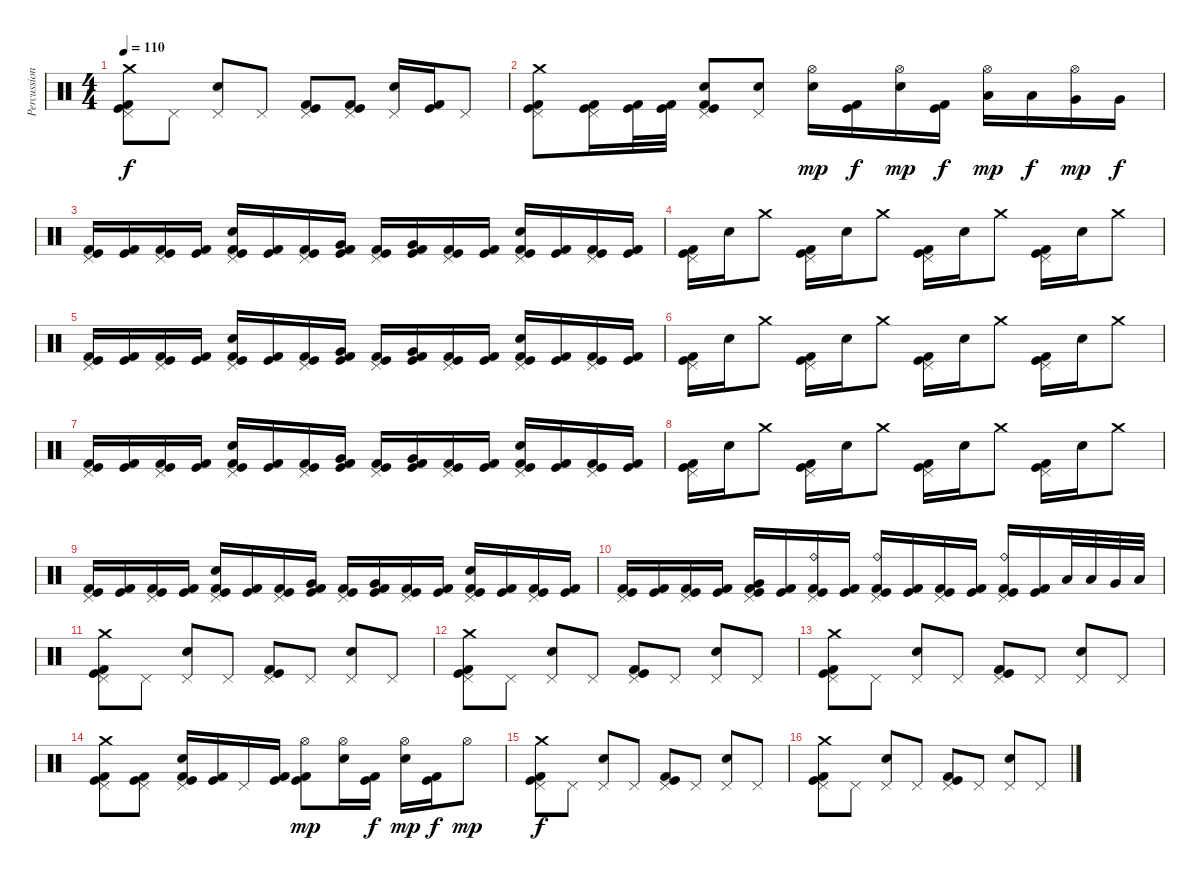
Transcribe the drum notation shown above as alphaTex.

\track ("Percussions" "Percussion") {instrument percussion}
\staff {score}
\articulation defaults
\ts (4 4)
\tempo 110
\clef neutral
\ks c
("Crash medium (hit)" "Pedal Hi-Hat (hit)" "Kick (hit)" "Kick (hit) 2").8{dy f} "Pedal Hi-Hat (hit)".8 ("Pedal Hi-Hat (hit)" "Electric Snare (hit)").8 "Pedal Hi-Hat (hit)".8 ("Pedal Hi-Hat (hit)" "Kick (hit)" "Kick (hit) 2").8 ("Pedal Hi-Hat (hit)" "Kick (hit)" "Kick (hit) 2").8 ("Pedal Hi-Hat (hit)" "Electric Snare (hit)").16 ("Kick (hit)" "Kick (hit) 2").16 "Pedal Hi-Hat (hit)".8 |
("Crash medium (hit)" "Pedal Hi-Hat (hit)" "Kick (hit)" "Kick (hit) 2").8 ("Pedal Hi-Hat (hit)" "Kick (hit)" "Kick (hit) 2").16 ("Kick (hit)" "Kick (hit) 2").32 ("Kick (hit)" "Kick (hit) 2").32 ("Pedal Hi-Hat (hit)" "Electric Snare (hit)" "Kick (hit)" "Kick (hit) 2").8 ("Pedal Hi-Hat (hit)" "Electric Snare (hit)").8 ("Hi-Hat (open)" "Electric Snare (hit)").16{dy mp} ("Kick (hit)" "Kick (hit) 2").16{dy f} ("Hi-Hat (open)" "Electric Snare (hit)").16{dy mp} ("Kick (hit)" "Kick (hit) 2").16{dy f} ("Hi-Hat (open)" "Low Tom (hit)").16{dy mp} "Low Tom (hit)".16{dy f} ("Hi-Hat (open)" "Very Low Tom (hit)").16{dy mp} "Very Low Tom (hit)".16{dy f} |
("Pedal Hi-Hat (hit)" "Kick (hit)" "Kick (hit) 2").16 ("Kick (hit)" "Kick (hit) 2").16 ("Pedal Hi-Hat (hit)" "Kick (hit)" "Kick (hit) 2").16 ("Kick (hit)" "Kick (hit) 2").16 ("Pedal Hi-Hat (hit)" "Electric Snare (hit)" "Kick (hit)" "Kick (hit) 2").16 ("Kick (hit)" "Kick (hit) 2").16 ("Pedal Hi-Hat (hit)" "Kick (hit)" "Kick (hit) 2").16 ("Very Low Tom (hit)" "Kick (hit)" "Kick (hit) 2").16 ("Pedal Hi-Hat (hit)" "Kick (hit)" "Kick (hit) 2").16 ("Very Low Tom (hit)" "Kick (hit)" "Kick (hit) 2").16 ("Pedal Hi-Hat (hit)" "Kick (hit)" "Kick (hit) 2").16 ("Kick (hit)" "Kick (hit) 2").16 ("Pedal Hi-Hat (hit)" "Electric Snare (hit)" "Kick (hit)" "Kick (hit) 2").16 ("Kick (hit)" "Kick (hit) 2").16 ("Pedal Hi-Hat (hit)" "Kick (hit)" "Kick (hit) 2").16 ("Kick (hit)" "Kick (hit) 2").16 |
("Pedal Hi-Hat (hit)" "Kick (hit)" "Kick (hit) 2").16 "Electric Snare (hit)".16 "Crash medium (hit)".8 ("Pedal Hi-Hat (hit)" "Kick (hit)" "Kick (hit) 2").16 "Electric Snare (hit)".16 "Crash medium (hit)".8 ("Pedal Hi-Hat (hit)" "Kick (hit)" "Kick (hit) 2").16 "Electric Snare (hit)".16 "Crash medium (hit)".8 ("Pedal Hi-Hat (hit)" "Kick (hit)" "Kick (hit) 2").16 "Electric Snare (hit)".16 "Crash medium (hit)".8 |
("Pedal Hi-Hat (hit)" "Kick (hit)" "Kick (hit) 2").16 ("Kick (hit)" "Kick (hit) 2").16 ("Pedal Hi-Hat (hit)" "Kick (hit)" "Kick (hit) 2").16 ("Kick (hit)" "Kick (hit) 2").16 ("Pedal Hi-Hat (hit)" "Electric Snare (hit)" "Kick (hit)" "Kick (hit) 2").16 ("Kick (hit)" "Kick (hit) 2").16 ("Pedal Hi-Hat (hit)" "Kick (hit)" "Kick (hit) 2").16 ("Very Low Tom (hit)" "Kick (hit)" "Kick (hit) 2").16 ("Pedal Hi-Hat (hit)" "Kick (hit)" "Kick (hit) 2").16 ("Very Low Tom (hit)" "Kick (hit)" "Kick (hit) 2").16 ("Pedal Hi-Hat (hit)" "Kick (hit)" "Kick (hit) 2").16 ("Kick (hit)" "Kick (hit) 2").16 ("Pedal Hi-Hat (hit)" "Electric Snare (hit)" "Kick (hit)" "Kick (hit) 2").16 ("Kick (hit)" "Kick (hit) 2").16 ("Pedal Hi-Hat (hit)" "Kick (hit)" "Kick (hit) 2").16 ("Kick (hit)" "Kick (hit) 2").16 |
("Pedal Hi-Hat (hit)" "Kick (hit)" "Kick (hit) 2").16 "Electric Snare (hit)".16 "Crash medium (hit)".8 ("Pedal Hi-Hat (hit)" "Kick (hit)" "Kick (hit) 2").16 "Electric Snare (hit)".16 "Crash medium (hit)".8 ("Pedal Hi-Hat (hit)" "Kick (hit)" "Kick (hit) 2").16 "Electric Snare (hit)".16 "Crash medium (hit)".8 ("Pedal Hi-Hat (hit)" "Kick (hit)" "Kick (hit) 2").16 "Electric Snare (hit)".16 "Crash medium (hit)".8 |
("Pedal Hi-Hat (hit)" "Kick (hit)" "Kick (hit) 2").16 ("Kick (hit)" "Kick (hit) 2").16 ("Pedal Hi-Hat (hit)" "Kick (hit)" "Kick (hit) 2").16 ("Kick (hit)" "Kick (hit) 2").16 ("Pedal Hi-Hat (hit)" "Electric Snare (hit)" "Kick (hit)" "Kick (hit) 2").16 ("Kick (hit)" "Kick (hit) 2").16 ("Pedal Hi-Hat (hit)" "Kick (hit)" "Kick (hit) 2").16 ("Very Low Tom (hit)" "Kick (hit)" "Kick (hit) 2").16 ("Pedal Hi-Hat (hit)" "Kick (hit)" "Kick (hit) 2").16 ("Very Low Tom (hit)" "Kick (hit)" "Kick (hit) 2").16 ("Pedal Hi-Hat (hit)" "Kick (hit)" "Kick (hit) 2").16 ("Kick (hit)" "Kick (hit) 2").16 ("Pedal Hi-Hat (hit)" "Electric Snare (hit)" "Kick (hit)" "Kick (hit) 2").16 ("Kick (hit)" "Kick (hit) 2").16 ("Pedal Hi-Hat (hit)" "Kick (hit)" "Kick (hit) 2").16 ("Kick (hit)" "Kick (hit) 2").16 |
("Pedal Hi-Hat (hit)" "Kick (hit)" "Kick (hit) 2").16 "Electric Snare (hit)".16 "Crash medium (hit)".8 ("Pedal Hi-Hat (hit)" "Kick (hit)" "Kick (hit) 2").16 "Electric Snare (hit)".16 "Crash medium (hit)".8 ("Pedal Hi-Hat (hit)" "Kick (hit)" "Kick (hit) 2").16 "Electric Snare (hit)".16 "Crash medium (hit)".8 ("Pedal Hi-Hat (hit)" "Kick (hit)" "Kick (hit) 2").16 "Electric Snare (hit)".16 "Crash medium (hit)".8 |
("Pedal Hi-Hat (hit)" "Kick (hit)" "Kick (hit) 2").16 ("Kick (hit)" "Kick (hit) 2").16 ("Pedal Hi-Hat (hit)" "Kick (hit)" "Kick (hit) 2").16 ("Kick (hit)" "Kick (hit) 2").16 ("Pedal Hi-Hat (hit)" "Electric Snare (hit)" "Kick (hit)" "Kick (hit) 2").16 ("Kick (hit)" "Kick (hit) 2").16 ("Pedal Hi-Hat (hit)" "Kick (hit)" "Kick (hit) 2").16 ("Very Low Tom (hit)" "Kick (hit)" "Kick (hit) 2").16 ("Pedal Hi-Hat (hit)" "Kick (hit)" "Kick (hit) 2").16 ("Very Low Tom (hit)" "Kick (hit)" "Kick (hit) 2").16 ("Pedal Hi-Hat (hit)" "Kick (hit)" "Kick (hit) 2").16 ("Kick (hit)" "Kick (hit) 2").16 ("Pedal Hi-Hat (hit)" "Electric Snare (hit)" "Kick (hit)" "Kick (hit) 2").16 ("Kick (hit)" "Kick (hit) 2").16 ("Pedal Hi-Hat (hit)" "Kick (hit)" "Kick (hit) 2").16 ("Kick (hit)" "Kick (hit) 2").16 |
("Pedal Hi-Hat (hit)" "Kick (hit)" "Kick (hit) 2").16 ("Kick (hit)" "Kick (hit) 2").16 ("Pedal Hi-Hat (hit)" "Kick (hit)" "Kick (hit) 2").16 ("Kick (hit)" "Kick (hit) 2").16 ("Pedal Hi-Hat (hit)" "Very Low Tom (hit)" "Kick (hit)" "Kick (hit) 2").16 ("Kick (hit)" "Kick (hit) 2").16 ("Ride (bell)" "Pedal Hi-Hat (hit)" "Kick (hit)" "Kick (hit) 2").16 ("Kick (hit)" "Kick (hit) 2").16 ("Ride (bell)" "Pedal Hi-Hat (hit)" "Kick (hit)" "Kick (hit) 2").16 ("Kick (hit)" "Kick (hit) 2").16 ("Pedal Hi-Hat (hit)" "Kick (hit)" "Kick (hit) 2").16 ("Kick (hit)" "Kick (hit) 2").16 ("Ride (bell)" "Pedal Hi-Hat (hit)" "Kick (hit)" "Kick (hit) 2").16 ("Kick (hit)" "Kick (hit) 2").16 "Low Tom (hit)".32 "Low Tom (hit)".32 "Very Low Tom (hit)".32 "Low Floor Tom (hit)".32 |
("Crash medium (hit)" "Pedal Hi-Hat (hit)" "Kick (hit)" "Kick (hit) 2").8 "Pedal Hi-Hat (hit)".8 ("Pedal Hi-Hat (hit)" "Electric Snare (hit)").8 "Pedal Hi-Hat (hit)".8 ("Pedal Hi-Hat (hit)" "Kick (hit)" "Kick (hit) 2").8 "Pedal Hi-Hat (hit)".8 ("Pedal Hi-Hat (hit)" "Electric Snare (hit)").8 "Pedal Hi-Hat (hit)".8 |
("Crash medium (hit)" "Pedal Hi-Hat (hit)" "Kick (hit)" "Kick (hit) 2").8 "Pedal Hi-Hat (hit)".8 ("Pedal Hi-Hat (hit)" "Electric Snare (hit)").8 "Pedal Hi-Hat (hit)".8 ("Pedal Hi-Hat (hit)" "Kick (hit)" "Kick (hit) 2").8 "Pedal Hi-Hat (hit)".8 ("Pedal Hi-Hat (hit)" "Electric Snare (hit)").8 "Pedal Hi-Hat (hit)".8 |
("Crash medium (hit)" "Pedal Hi-Hat (hit)" "Kick (hit)" "Kick (hit) 2").8 "Pedal Hi-Hat (hit)".8 ("Pedal Hi-Hat (hit)" "Electric Snare (hit)").8 "Pedal Hi-Hat (hit)".8 ("Pedal Hi-Hat (hit)" "Kick (hit)" "Kick (hit) 2").8 "Pedal Hi-Hat (hit)".8 ("Pedal Hi-Hat (hit)" "Electric Snare (hit)").8 "Pedal Hi-Hat (hit)".8 |
("Crash medium (hit)" "Pedal Hi-Hat (hit)" "Kick (hit)" "Kick (hit) 2").8 ("Pedal Hi-Hat (hit)" "Kick (hit)" "Kick (hit) 2").8 ("Pedal Hi-Hat (hit)" "Electric Snare (hit)" "Kick (hit)" "Kick (hit) 2").16 ("Kick (hit)" "Kick (hit) 2").16 "Pedal Hi-Hat (hit)".16 ("Kick (hit)" "Kick (hit) 2").16 ("Hi-Hat (open)" "Kick (hit)" "Kick (hit) 2").8{dy mp} ("Hi-Hat (open)" "Electric Snare (hit)").16 ("Kick (hit)" "Kick (hit) 2").16{dy f} ("Hi-Hat (open)" "Electric Snare (hit)").16{dy mp} ("Kick (hit)" "Kick (hit) 2").16{dy f} "Hi-Hat (open)".8{dy mp} |
("Crash medium (hit)" "Pedal Hi-Hat (hit)" "Kick (hit)" "Kick (hit) 2").8{dy f} "Pedal Hi-Hat (hit)".8 ("Pedal Hi-Hat (hit)" "Electric Snare (hit)").8 "Pedal Hi-Hat (hit)".8 ("Pedal Hi-Hat (hit)" "Kick (hit)" "Kick (hit) 2").8 "Pedal Hi-Hat (hit)".8 ("Pedal Hi-Hat (hit)" "Electric Snare (hit)").8 "Pedal Hi-Hat (hit)".8 |
("Crash medium (hit)" "Pedal Hi-Hat (hit)" "Kick (hit)" "Kick (hit) 2").8 "Pedal Hi-Hat (hit)".8 ("Pedal Hi-Hat (hit)" "Electric Snare (hit)").8 "Pedal Hi-Hat (hit)".8 ("Pedal Hi-Hat (hit)" "Kick (hit)" "Kick (hit) 2").8 "Pedal Hi-Hat (hit)".8 ("Pedal Hi-Hat (hit)" "Electric Snare (hit)").8 "Pedal Hi-Hat (hit)".8
